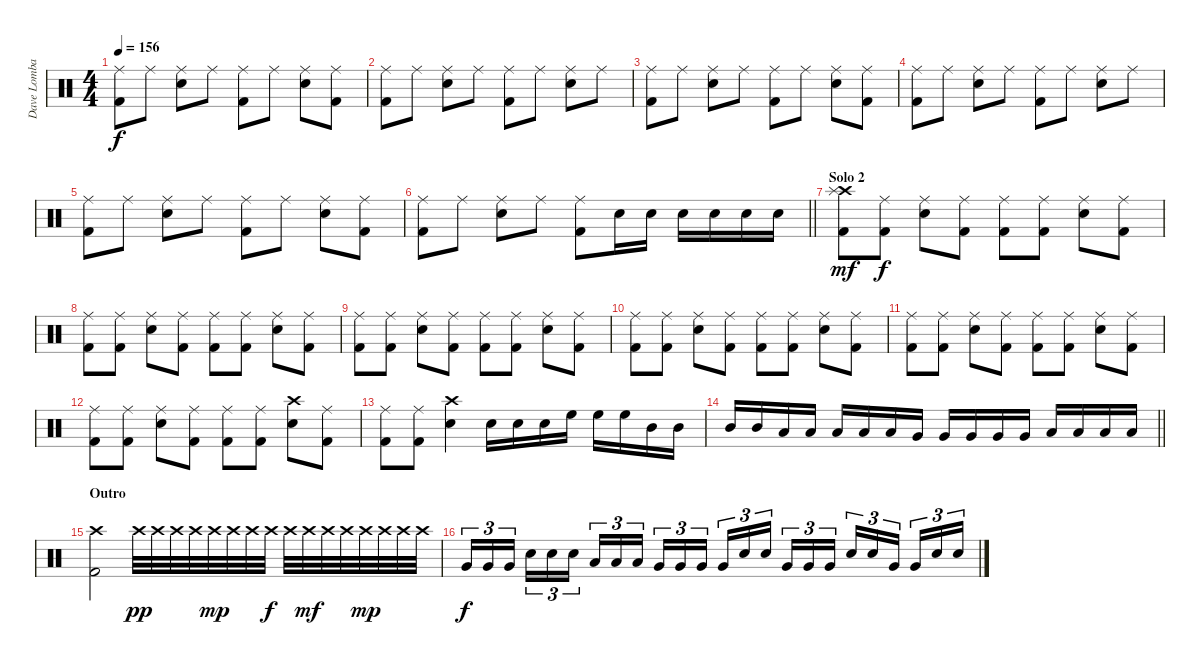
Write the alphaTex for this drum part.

\track ("Dave Lombardo" "Dave Lomba") {instrument percussion}
\staff {score}
\articulation defaults
\ts (4 4)
\tempo 156
\clef neutral
\ks c
("Ride (middle)" "Kick (hit) 2").8{dy f} "Ride (middle)".8 ("Ride (middle)" "Snare (hit) 2").8 "Ride (middle)".8 ("Ride (middle)" "Kick (hit) 2").8 "Ride (middle)".8 ("Ride (middle)" "Snare (hit) 2").8 ("Ride (middle)" "Kick (hit) 2").8 |
("Ride (middle)" "Kick (hit) 2").8 "Ride (middle)".8 ("Ride (middle)" "Snare (hit) 2").8 "Ride (middle)".8 ("Ride (middle)" "Kick (hit) 2").8 "Ride (middle)".8 ("Ride (middle)" "Snare (hit) 2").8 "Ride (middle)".8 |
("Ride (middle)" "Kick (hit) 2").8 "Ride (middle)".8 ("Ride (middle)" "Snare (hit) 2").8 "Ride (middle)".8 ("Ride (middle)" "Kick (hit) 2").8 "Ride (middle)".8 ("Ride (middle)" "Snare (hit) 2").8 ("Ride (middle)" "Kick (hit) 2").8 |
("Ride (middle)" "Kick (hit) 2").8 "Ride (middle)".8 ("Ride (middle)" "Snare (hit) 2").8 "Ride (middle)".8 ("Ride (middle)" "Kick (hit) 2").8 "Ride (middle)".8 ("Ride (middle)" "Snare (hit) 2").8 "Ride (middle)".8 |
("Ride (middle)" "Kick (hit) 2").8 "Ride (middle)".8 ("Ride (middle)" "Snare (hit) 2").8 "Ride (middle)".8 ("Ride (middle)" "Kick (hit) 2").8 "Ride (middle)".8 ("Ride (middle)" "Snare (hit) 2").8 ("Ride (middle)" "Kick (hit) 2").8 |
\barLineRight lightlight
("Ride (middle)" "Kick (hit) 2").8 "Ride (middle)".8 ("Ride (middle)" "Snare (hit) 2").8 "Ride (middle)".8 ("Ride (middle)" "Kick (hit) 2").8 "Snare (hit) 2".16 "Snare (hit) 2".16 "Snare (hit) 2".16 "Snare (hit) 2".16 "Snare (hit) 2".16 "Snare (hit) 2".16 |
\section ("" "Solo 2")
("Crash high (hit)" "Splash (hit)" "Kick (hit) 2").8{dy mf} ("Ride (middle)" "Kick (hit) 2").8{dy f} ("Ride (middle)" "Snare (hit) 2").8 ("Ride (middle)" "Kick (hit) 2").8 ("Ride (middle)" "Kick (hit) 2").8 ("Ride (middle)" "Kick (hit) 2").8 ("Ride (middle)" "Snare (hit) 2").8 ("Ride (middle)" "Kick (hit) 2").8 |
("Ride (middle)" "Kick (hit) 2").8 ("Ride (middle)" "Kick (hit) 2").8 ("Ride (middle)" "Snare (hit) 2").8 ("Ride (middle)" "Kick (hit) 2").8 ("Ride (middle)" "Kick (hit) 2").8 ("Ride (middle)" "Kick (hit) 2").8 ("Ride (middle)" "Snare (hit) 2").8 ("Ride (middle)" "Kick (hit) 2").8 |
("Ride (middle)" "Kick (hit) 2").8 ("Ride (middle)" "Kick (hit) 2").8 ("Ride (middle)" "Snare (hit) 2").8 ("Ride (middle)" "Kick (hit) 2").8 ("Ride (middle)" "Kick (hit) 2").8 ("Ride (middle)" "Kick (hit) 2").8 ("Ride (middle)" "Snare (hit) 2").8 ("Ride (middle)" "Kick (hit) 2").8 |
("Ride (middle)" "Kick (hit) 2").8 ("Ride (middle)" "Kick (hit) 2").8 ("Ride (middle)" "Snare (hit) 2").8 ("Ride (middle)" "Kick (hit) 2").8 ("Ride (middle)" "Kick (hit) 2").8 ("Ride (middle)" "Kick (hit) 2").8 ("Ride (middle)" "Snare (hit) 2").8 ("Ride (middle)" "Kick (hit) 2").8 |
("Ride (middle)" "Kick (hit) 2").8 ("Ride (middle)" "Kick (hit) 2").8 ("Ride (middle)" "Snare (hit) 2").8 ("Ride (middle)" "Kick (hit) 2").8 ("Ride (middle)" "Kick (hit) 2").8 ("Ride (middle)" "Kick (hit) 2").8 ("Ride (middle)" "Snare (hit) 2").8 ("Ride (middle)" "Kick (hit) 2").8 |
("Ride (middle)" "Kick (hit) 2").8 ("Ride (middle)" "Kick (hit) 2").8 ("Ride (middle)" "Snare (hit) 2").8 ("Ride (middle)" "Kick (hit) 2").8 ("Ride (middle)" "Kick (hit) 2").8 ("Ride (middle)" "Kick (hit) 2").8 ("Crash high (hit)" "Snare (hit) 2").8 ("Ride (middle)" "Kick (hit) 2").8 |
("Ride (middle)" "Kick (hit) 2").8 ("Ride (middle)" "Kick (hit) 2").8 ("Crash high (hit)" "Snare (hit) 2").4 "Snare (hit) 2".16 "Snare (hit) 2".16 "Snare (hit) 2".16 "High Floor Tom (hit)".16 "High Floor Tom (hit)".16 "High Floor Tom (hit)".16 "Mid Tom (hit)".16 "Mid Tom (hit)".16 |
\barLineRight lightlight "Mid Tom (hit)".16 "Mid Tom (hit)".16 "Low Tom (hit)".16 "Low Tom (hit)".16 "Low Tom (hit)".16 "Low Tom (hit)".16 "Low Tom (hit)".16 "Very Low Tom (hit)".16 "Very Low Tom (hit)".16 "Very Low Tom (hit)".16 "Very Low Tom (hit)".16 "Very Low Tom (hit)".16 "Low Floor Tom (hit)".16 "Low Floor Tom (hit)".16 "Low Floor Tom (hit)".16 "Low Floor Tom (hit)".16
|
\section ("" "Outro")
("Crash high (hit)" "Kick (hit) 2").2 "Crash high (hit)".32{dy pp} "Crash high (hit)".32 "Crash high (hit)".32 "Crash high (hit)".32 "Crash high (hit)".32{dy mp} "Crash high (hit)".32 "Crash high (hit)".32 "Crash high (hit)".32{dy f} "Crash high (hit)".32 "Crash high (hit)".32{dy mf} "Crash high (hit)".32 "Crash high (hit)".32 "Crash high (hit)".32{dy mp} "Crash high (hit)".32 "Crash high (hit)".32 "Crash high (hit)".32 |
"Very Low Tom (hit)".16{tu (3 2) dy f} "Very Low Tom (hit)".16{tu (3 2)} "Very Low Tom (hit)".16{tu (3 2) beam splitsecondary} "Snare (hit) 2".16{tu (3 2)} "Snare (hit) 2".16{tu (3 2)} "Snare (hit) 2".16{tu (3 2)} "Low Tom (hit)".16{tu (3 2)} "Low Tom (hit)".16{tu (3 2)} "Low Tom (hit)".16{tu (3 2) beam splitsecondary} "Very Low Tom (hit)".16{tu (3 2)} "Very Low Tom (hit)".16{tu (3 2)} "Very Low Tom (hit)".16{tu (3 2)} "Very Low Tom (hit)".16{tu (3 2)} "Snare (hit) 2".16{tu (3 2)} "Snare (hit) 2".16{tu (3 2) beam splitsecondary} "Very Low Tom (hit)".16{tu (3 2)} "Very Low Tom (hit)".16{tu (3 2)} "Very Low Tom (hit)".16{tu (3 2)} "Snare (hit) 2".16{tu (3 2)} "Snare (hit) 2".16{tu (3 2)} "Very Low Tom (hit)".16{tu (3 2) beam splitsecondary} "Very Low Tom (hit)".16{tu (3 2)} "Snare (hit) 2".16{tu (3 2)} "Snare (hit) 2".16{tu (3 2)}
